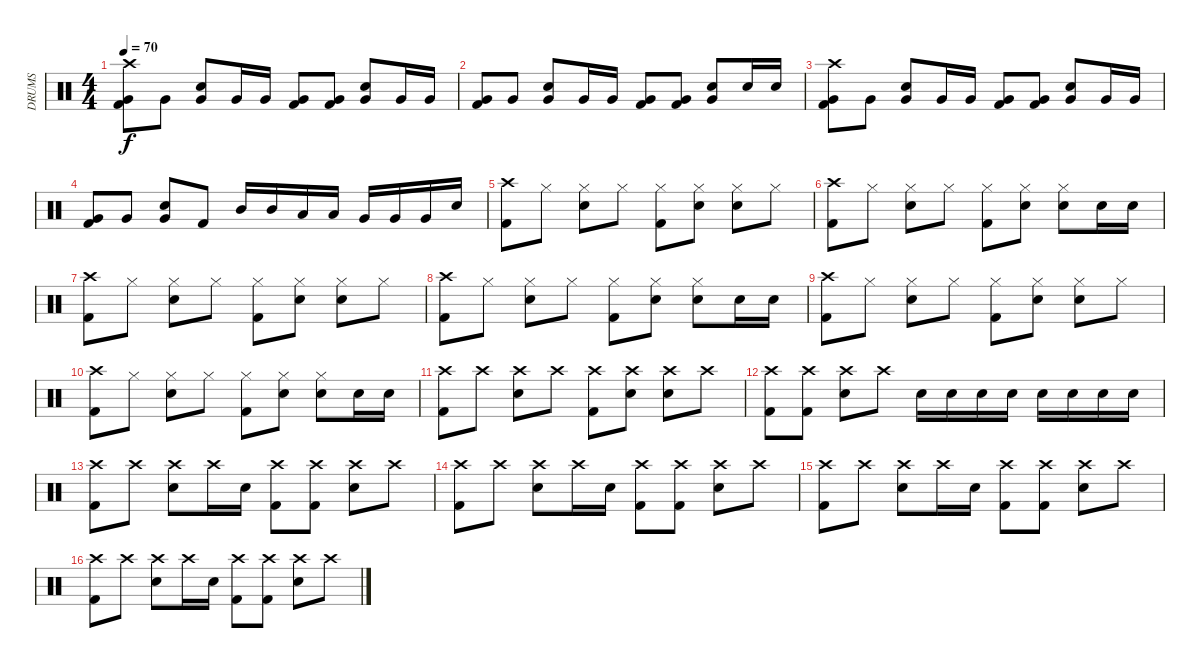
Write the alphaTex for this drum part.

\track ("DRUMS" "DRUMS") {instrument percussion}
\staff {score}
\articulation defaults
\ts (4 4)
\tempo 70
\clef neutral
\ks c
("Crash high (hit)" "Kick (hit) 2" "Very Low Tom (hit)").8{dy f} "Very Low Tom (hit)".8 ("Snare (hit) 2" "Very Low Tom (hit)").8 "Very Low Tom (hit)".16 "Very Low Tom (hit)".16 ("Kick (hit) 2" "Very Low Tom (hit)").8 ("Kick (hit) 2" "Very Low Tom (hit)").8 ("Snare (hit) 2" "Very Low Tom (hit)").8 "Very Low Tom (hit)".16 "Very Low Tom (hit)".16 |
("Kick (hit) 2" "Very Low Tom (hit)").8 "Very Low Tom (hit)".8 ("Snare (hit) 2" "Very Low Tom (hit)").8 "Very Low Tom (hit)".16 "Very Low Tom (hit)".16 ("Kick (hit) 2" "Very Low Tom (hit)").8 ("Kick (hit) 2" "Very Low Tom (hit)").8 ("Snare (hit) 2" "Very Low Tom (hit)").8 "Snare (hit) 2".16 "Snare (hit) 2".16 |
("Crash high (hit)" "Kick (hit) 2" "Very Low Tom (hit)").8 "Very Low Tom (hit)".8 ("Snare (hit) 2" "Very Low Tom (hit)").8 "Very Low Tom (hit)".16 "Very Low Tom (hit)".16 ("Kick (hit) 2" "Very Low Tom (hit)").8 ("Kick (hit) 2" "Very Low Tom (hit)").8 ("Snare (hit) 2" "Very Low Tom (hit)").8 "Very Low Tom (hit)".16 "Very Low Tom (hit)".16 |
("Kick (hit) 2" "Very Low Tom (hit)").8 "Very Low Tom (hit)".8 ("Snare (hit) 2" "Very Low Tom (hit)").8 "Kick (hit) 2".8 "Mid Tom (hit)".16 "Mid Tom (hit)".16 "Low Tom (hit)".16 "Low Tom (hit)".16 "Very Low Tom (hit)".16 "Very Low Tom (hit)".16 "Very Low Tom (hit)".16 "Snare (hit) 2".16 |
("Crash high (hit)" "Kick (hit) 2").8 "Hi-Hat (closed)".8 ("Hi-Hat (closed)" "Snare (hit) 2").8 "Hi-Hat (closed)".8 ("Hi-Hat (closed)" "Kick (hit) 2").8 ("Hi-Hat (closed)" "Snare (hit) 2").8 ("Hi-Hat (closed)" "Snare (hit) 2").8 "Hi-Hat (closed)".8 |
("Crash high (hit)" "Kick (hit) 2").8 "Hi-Hat (closed)".8 ("Hi-Hat (closed)" "Snare (hit) 2").8 "Hi-Hat (closed)".8 ("Hi-Hat (closed)" "Kick (hit) 2").8 ("Hi-Hat (closed)" "Snare (hit) 2").8 ("Hi-Hat (closed)" "Snare (hit) 2").8 "Snare (hit) 2".16 "Snare (hit) 2".16 |
("Crash high (hit)" "Kick (hit) 2").8 "Hi-Hat (closed)".8 ("Hi-Hat (closed)" "Snare (hit) 2").8 "Hi-Hat (closed)".8 ("Hi-Hat (closed)" "Kick (hit) 2").8 ("Hi-Hat (closed)" "Snare (hit) 2").8 ("Hi-Hat (closed)" "Snare (hit) 2").8 "Hi-Hat (closed)".8 |
("Crash high (hit)" "Kick (hit) 2").8 "Hi-Hat (closed)".8 ("Hi-Hat (closed)" "Snare (hit) 2").8 "Hi-Hat (closed)".8 ("Hi-Hat (closed)" "Kick (hit) 2").8 ("Hi-Hat (closed)" "Snare (hit) 2").8 ("Hi-Hat (closed)" "Snare (hit) 2").8 "Snare (hit) 2".16 "Snare (hit) 2".16 |
("Crash high (hit)" "Kick (hit) 2").8 "Hi-Hat (closed)".8 ("Hi-Hat (closed)" "Snare (hit) 2").8 "Hi-Hat (closed)".8 ("Hi-Hat (closed)" "Kick (hit) 2").8 ("Hi-Hat (closed)" "Snare (hit) 2").8 ("Hi-Hat (closed)" "Snare (hit) 2").8 "Hi-Hat (closed)".8 |
("Crash high (hit)" "Kick (hit) 2").8 "Hi-Hat (closed)".8 ("Hi-Hat (closed)" "Snare (hit) 2").8 "Hi-Hat (closed)".8 ("Hi-Hat (closed)" "Kick (hit) 2").8 ("Hi-Hat (closed)" "Snare (hit) 2").8 ("Hi-Hat (closed)" "Snare (hit) 2").8 "Snare (hit) 2".16 "Snare (hit) 2".16 |
("Crash high (hit)" "Kick (hit) 2").8 "Crash high (hit)".8 ("Crash high (hit)" "Snare (hit) 2").8 "Crash high (hit)".8 ("Crash high (hit)" "Kick (hit) 2").8 ("Crash high (hit)" "Snare (hit) 2").8 ("Crash high (hit)" "Snare (hit) 2").8 "Crash high (hit)".8 |
("Crash high (hit)" "Kick (hit) 2").8 ("Crash high (hit)" "Kick (hit) 2").8 ("Crash high (hit)" "Snare (hit) 2").8 "Crash high (hit)".8 "Snare (hit) 2".16 "Snare (hit) 2".16 "Snare (hit) 2".16 "Snare (hit) 2".16 "Snare (hit) 2".16 "Snare (hit) 2".16 "Snare (hit) 2".16 "Snare (hit) 2".16 |
("Crash high (hit)" "Kick (hit) 2").8 "Crash high (hit)".8 ("Crash high (hit)" "Snare (hit) 2").8 "Crash high (hit)".16 "Snare (hit) 2".16 ("Crash high (hit)" "Kick (hit) 2").8 ("Crash high (hit)" "Kick (hit) 2").8 ("Crash high (hit)" "Snare (hit) 2").8 "Crash high (hit)".8 |
("Crash high (hit)" "Kick (hit) 2").8 "Crash high (hit)".8 ("Crash high (hit)" "Snare (hit) 2").8 "Crash high (hit)".16 "Snare (hit) 2".16 ("Crash high (hit)" "Kick (hit) 2").8 ("Crash high (hit)" "Kick (hit) 2").8 ("Crash high (hit)" "Snare (hit) 2").8 "Crash high (hit)".8 |
("Crash high (hit)" "Kick (hit) 2").8 "Crash high (hit)".8 ("Crash high (hit)" "Snare (hit) 2").8 "Crash high (hit)".16 "Snare (hit) 2".16 ("Crash high (hit)" "Kick (hit) 2").8 ("Crash high (hit)" "Kick (hit) 2").8 ("Crash high (hit)" "Snare (hit) 2").8 "Crash high (hit)".8 |
("Crash high (hit)" "Kick (hit) 2").8 "Crash high (hit)".8 ("Crash high (hit)" "Snare (hit) 2").8 "Crash high (hit)".16 "Snare (hit) 2".16 ("Crash high (hit)" "Kick (hit) 2").8 ("Crash high (hit)" "Kick (hit) 2").8 ("Crash high (hit)" "Snare (hit) 2").8 "Crash high (hit)".8
